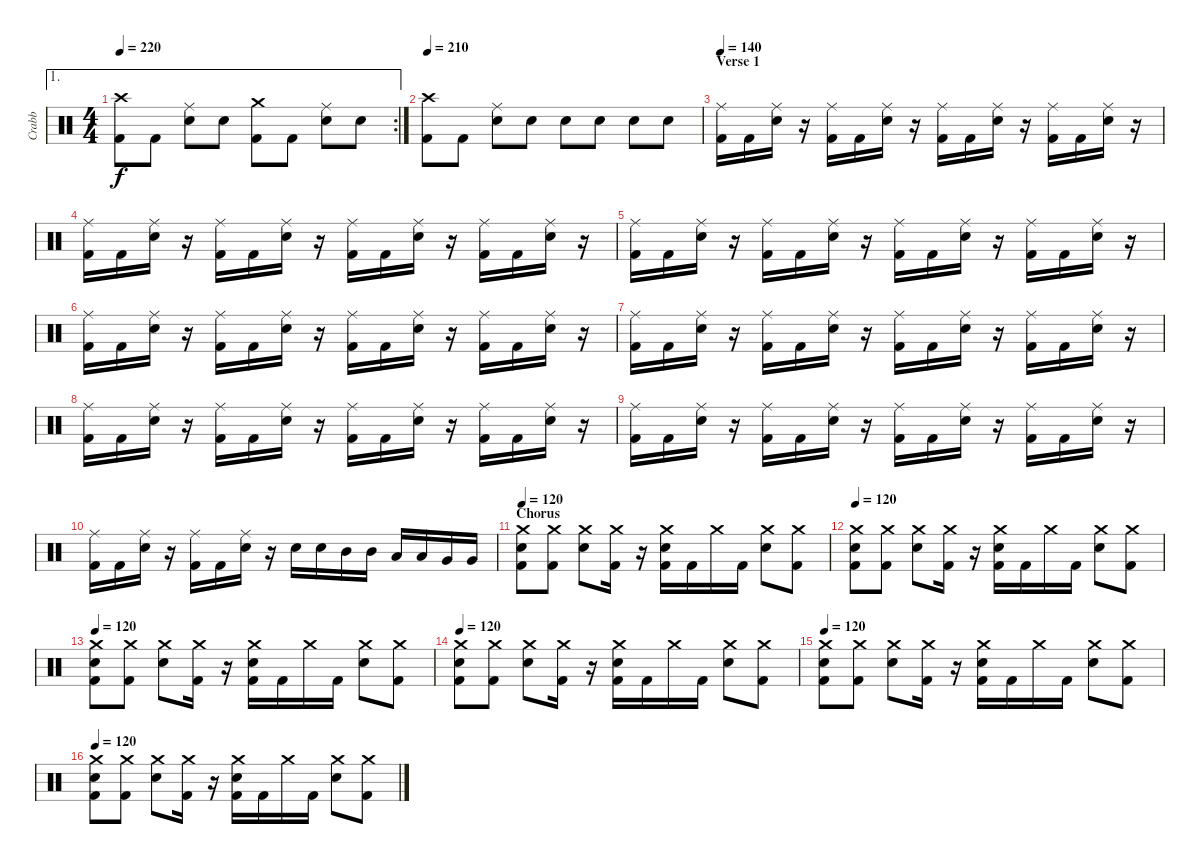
\track ("Crabb" "Crabb") {instrument percussion}
\staff {score}
\articulation defaults
\ae 1
\rc 2
\ts (4 4)
\tempo 220
\clef neutral
\ks c
("Crash high (hit)" "Kick (hit) 2").8{dy f} "Kick (hit) 2".8 ("Ride (middle)" "Electric Snare (hit)").8 "Electric Snare (hit)".8 ("Crash medium (hit)" "Kick (hit) 2").8 "Kick (hit) 2".8 ("Ride (middle)" "Electric Snare (hit)").8 "Electric Snare (hit)".8 |
\tempo 210
("Crash high (hit)" "Kick (hit) 2").8 "Kick (hit) 2".8 ("Ride (middle)" "Electric Snare (hit)").8 "Electric Snare (hit)".8 "Electric Snare (hit)".8 "Electric Snare (hit)".8 "Electric Snare (hit)".8 "Electric Snare (hit)".8 |
\section ("" "Verse 1")
\tempo 140
("Ride (middle)" "Kick (hit) 2").16 "Kick (hit) 2".16 ("Ride (middle)" "Electric Snare (hit)").16 r.16 ("Ride (middle)" "Kick (hit) 2").16 "Kick (hit) 2".16 ("Ride (middle)" "Electric Snare (hit)").16 r.16 ("Ride (middle)" "Kick (hit) 2").16 "Kick (hit) 2".16 ("Ride (middle)" "Electric Snare (hit)").16 r.16 ("Ride (middle)" "Kick (hit) 2").16 "Kick (hit) 2".16 ("Ride (middle)" "Electric Snare (hit)").16 r.16 |
("Ride (middle)" "Kick (hit) 2").16 "Kick (hit) 2".16 ("Ride (middle)" "Electric Snare (hit)").16 r.16 ("Ride (middle)" "Kick (hit) 2").16 "Kick (hit) 2".16 ("Ride (middle)" "Electric Snare (hit)").16 r.16 ("Ride (middle)" "Kick (hit) 2").16 "Kick (hit) 2".16 ("Ride (middle)" "Electric Snare (hit)").16 r.16 ("Ride (middle)" "Kick (hit) 2").16 "Kick (hit) 2".16 ("Ride (middle)" "Electric Snare (hit)").16 r.16 |
("Ride (middle)" "Kick (hit) 2").16 "Kick (hit) 2".16 ("Ride (middle)" "Electric Snare (hit)").16 r.16 ("Ride (middle)" "Kick (hit) 2").16 "Kick (hit) 2".16 ("Ride (middle)" "Electric Snare (hit)").16 r.16 ("Ride (middle)" "Kick (hit) 2").16 "Kick (hit) 2".16 ("Ride (middle)" "Electric Snare (hit)").16 r.16 ("Ride (middle)" "Kick (hit) 2").16 "Kick (hit) 2".16 ("Ride (middle)" "Electric Snare (hit)").16 r.16 |
("Ride (middle)" "Kick (hit) 2").16 "Kick (hit) 2".16 ("Ride (middle)" "Electric Snare (hit)").16 r.16 ("Ride (middle)" "Kick (hit) 2").16 "Kick (hit) 2".16 ("Ride (middle)" "Electric Snare (hit)").16 r.16 ("Ride (middle)" "Kick (hit) 2").16 "Kick (hit) 2".16 ("Ride (middle)" "Electric Snare (hit)").16 r.16 ("Ride (middle)" "Kick (hit) 2").16 "Kick (hit) 2".16 ("Ride (middle)" "Electric Snare (hit)").16 r.16 |
("Ride (middle)" "Kick (hit) 2").16 "Kick (hit) 2".16 ("Ride (middle)" "Electric Snare (hit)").16 r.16 ("Ride (middle)" "Kick (hit) 2").16 "Kick (hit) 2".16 ("Ride (middle)" "Electric Snare (hit)").16 r.16 ("Ride (middle)" "Kick (hit) 2").16 "Kick (hit) 2".16 ("Ride (middle)" "Electric Snare (hit)").16 r.16 ("Ride (middle)" "Kick (hit) 2").16 "Kick (hit) 2".16 ("Ride (middle)" "Electric Snare (hit)").16 r.16 |
("Ride (middle)" "Kick (hit) 2").16 "Kick (hit) 2".16 ("Ride (middle)" "Electric Snare (hit)").16 r.16 ("Ride (middle)" "Kick (hit) 2").16 "Kick (hit) 2".16 ("Ride (middle)" "Electric Snare (hit)").16 r.16 ("Ride (middle)" "Kick (hit) 2").16 "Kick (hit) 2".16 ("Ride (middle)" "Electric Snare (hit)").16 r.16 ("Ride (middle)" "Kick (hit) 2").16 "Kick (hit) 2".16 ("Ride (middle)" "Electric Snare (hit)").16 r.16 |
("Ride (middle)" "Kick (hit) 2").16 "Kick (hit) 2".16 ("Ride (middle)" "Electric Snare (hit)").16 r.16 ("Ride (middle)" "Kick (hit) 2").16 "Kick (hit) 2".16 ("Ride (middle)" "Electric Snare (hit)").16 r.16 ("Ride (middle)" "Kick (hit) 2").16 "Kick (hit) 2".16 ("Ride (middle)" "Electric Snare (hit)").16 r.16 ("Ride (middle)" "Kick (hit) 2").16 "Kick (hit) 2".16 ("Ride (middle)" "Electric Snare (hit)").16 r.16 |
("Ride (middle)" "Kick (hit) 2").16 "Kick (hit) 2".16 ("Ride (middle)" "Electric Snare (hit)").16 r.16 ("Ride (middle)" "Kick (hit) 2").16 "Kick (hit) 2".16 ("Ride (middle)" "Electric Snare (hit)").16 r.16 "Electric Snare (hit)".16 "Electric Snare (hit)".16 "Mid Tom (hit)".16 "Mid Tom (hit)".16 "Low Tom (hit)".16 "Low Tom (hit)".16 "Very Low Tom (hit)".16 "Very Low Tom (hit)".16 |
\section ("" "Chorus")
\tempo 140
\tempo 120
("Crash medium (hit)" "Kick (hit) 2" "Electric Snare (hit)").8 ("Crash medium (hit)" "Kick (hit) 2").8 ("Crash medium (hit)" "Electric Snare (hit)").8 ("Crash medium (hit)" "Kick (hit) 2").16 r.16 ("Crash medium (hit)" "Kick (hit) 2" "Electric Snare (hit)").16 "Kick (hit) 2".16 "Crash medium (hit)".16 "Kick (hit) 2".16 ("Crash medium (hit)" "Electric Snare (hit)").8 ("Crash medium (hit)" "Kick (hit) 2").8 |
\tempo 120
("Crash medium (hit)" "Kick (hit) 2" "Electric Snare (hit)").8 ("Crash medium (hit)" "Kick (hit) 2").8 ("Crash medium (hit)" "Electric Snare (hit)").8 ("Crash medium (hit)" "Kick (hit) 2").16 r.16 ("Crash medium (hit)" "Kick (hit) 2" "Electric Snare (hit)").16 "Kick (hit) 2".16 "Crash medium (hit)".16 "Kick (hit) 2".16 ("Crash medium (hit)" "Electric Snare (hit)").8 ("Crash medium (hit)" "Kick (hit) 2").8 |
\tempo 120
("Crash medium (hit)" "Kick (hit) 2" "Electric Snare (hit)").8 ("Crash medium (hit)" "Kick (hit) 2").8 ("Crash medium (hit)" "Electric Snare (hit)").8 ("Crash medium (hit)" "Kick (hit) 2").16 r.16 ("Crash medium (hit)" "Kick (hit) 2" "Electric Snare (hit)").16 "Kick (hit) 2".16 "Crash medium (hit)".16 "Kick (hit) 2".16 ("Crash medium (hit)" "Electric Snare (hit)").8 ("Crash medium (hit)" "Kick (hit) 2").8 |
\tempo 120
("Crash medium (hit)" "Kick (hit) 2" "Electric Snare (hit)").8 ("Crash medium (hit)" "Kick (hit) 2").8 ("Crash medium (hit)" "Electric Snare (hit)").8 ("Crash medium (hit)" "Kick (hit) 2").16 r.16 ("Crash medium (hit)" "Kick (hit) 2" "Electric Snare (hit)").16 "Kick (hit) 2".16 "Crash medium (hit)".16 "Kick (hit) 2".16 ("Crash medium (hit)" "Electric Snare (hit)").8 ("Crash medium (hit)" "Kick (hit) 2").8 |
\tempo 120
("Crash medium (hit)" "Kick (hit) 2" "Electric Snare (hit)").8 ("Crash medium (hit)" "Kick (hit) 2").8 ("Crash medium (hit)" "Electric Snare (hit)").8 ("Crash medium (hit)" "Kick (hit) 2").16 r.16 ("Crash medium (hit)" "Kick (hit) 2" "Electric Snare (hit)").16 "Kick (hit) 2".16 "Crash medium (hit)".16 "Kick (hit) 2".16 ("Crash medium (hit)" "Electric Snare (hit)").8 ("Crash medium (hit)" "Kick (hit) 2").8 |
\tempo 120
("Crash medium (hit)" "Kick (hit) 2" "Electric Snare (hit)").8 ("Crash medium (hit)" "Kick (hit) 2").8 ("Crash medium (hit)" "Electric Snare (hit)").8 ("Crash medium (hit)" "Kick (hit) 2").16 r.16 ("Crash medium (hit)" "Kick (hit) 2" "Electric Snare (hit)").16 "Kick (hit) 2".16 "Crash medium (hit)".16 "Kick (hit) 2".16 ("Crash medium (hit)" "Electric Snare (hit)").8 ("Crash medium (hit)" "Kick (hit) 2").8
